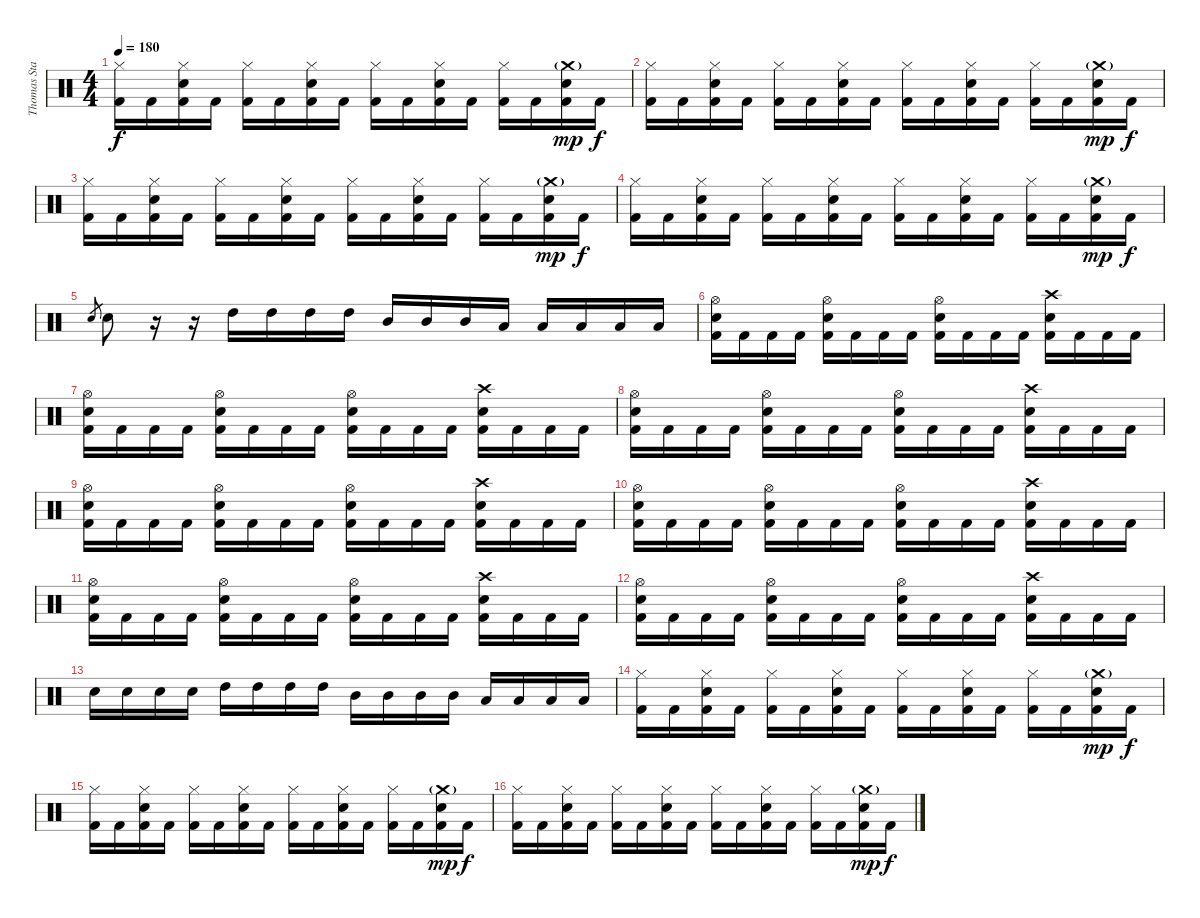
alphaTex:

\track ("Thomas Stauch" "Thomas Sta") {instrument percussion}
\staff {score}
\articulation defaults
\ts (4 4)
\tempo 180
\clef neutral
\ks c
("Hi-Hat (closed)" "Kick (hit) 2").16{dy f} "Kick (hit) 2".16 ("Hi-Hat (closed)" "Electric Snare (hit)" "Kick (hit) 2").16 "Kick (hit) 2".16 ("Hi-Hat (closed)" "Kick (hit) 2").16 "Kick (hit) 2".16 ("Hi-Hat (closed)" "Electric Snare (hit)" "Kick (hit) 2").16 "Kick (hit) 2".16 ("Hi-Hat (closed)" "Kick (hit) 2").16 "Kick (hit) 2".16 ("Hi-Hat (closed)" "Electric Snare (hit)" "Kick (hit) 2").16 "Kick (hit) 2".16 ("Hi-Hat (closed)" "Kick (hit) 2").16 "Kick (hit) 2".16 ("Crash medium (hit)"{g} "Electric Snare (hit)" "Kick (hit) 2").16{dy mp} "Kick (hit) 2".16{dy f} |
("Hi-Hat (closed)" "Kick (hit) 2").16 "Kick (hit) 2".16 ("Hi-Hat (closed)" "Electric Snare (hit)" "Kick (hit) 2").16 "Kick (hit) 2".16 ("Hi-Hat (closed)" "Kick (hit) 2").16 "Kick (hit) 2".16 ("Hi-Hat (closed)" "Electric Snare (hit)" "Kick (hit) 2").16 "Kick (hit) 2".16 ("Hi-Hat (closed)" "Kick (hit) 2").16 "Kick (hit) 2".16 ("Hi-Hat (closed)" "Electric Snare (hit)" "Kick (hit) 2").16 "Kick (hit) 2".16 ("Hi-Hat (closed)" "Kick (hit) 2").16 "Kick (hit) 2".16 ("Crash medium (hit)"{g} "Electric Snare (hit)" "Kick (hit) 2").16{dy mp} "Kick (hit) 2".16{dy f} |
("Hi-Hat (closed)" "Kick (hit) 2").16 "Kick (hit) 2".16 ("Hi-Hat (closed)" "Electric Snare (hit)" "Kick (hit) 2").16 "Kick (hit) 2".16 ("Hi-Hat (closed)" "Kick (hit) 2").16 "Kick (hit) 2".16 ("Hi-Hat (closed)" "Electric Snare (hit)" "Kick (hit) 2").16 "Kick (hit) 2".16 ("Hi-Hat (closed)" "Kick (hit) 2").16 "Kick (hit) 2".16 ("Hi-Hat (closed)" "Electric Snare (hit)" "Kick (hit) 2").16 "Kick (hit) 2".16 ("Hi-Hat (closed)" "Kick (hit) 2").16 "Kick (hit) 2".16 ("Crash medium (hit)"{g} "Electric Snare (hit)" "Kick (hit) 2").16{dy mp} "Kick (hit) 2".16{dy f} |
("Hi-Hat (closed)" "Kick (hit) 2").16 "Kick (hit) 2".16 ("Hi-Hat (closed)" "Electric Snare (hit)" "Kick (hit) 2").16 "Kick (hit) 2".16 ("Hi-Hat (closed)" "Kick (hit) 2").16 "Kick (hit) 2".16 ("Hi-Hat (closed)" "Electric Snare (hit)" "Kick (hit) 2").16 "Kick (hit) 2".16 ("Hi-Hat (closed)" "Kick (hit) 2").16 "Kick (hit) 2".16 ("Hi-Hat (closed)" "Electric Snare (hit)" "Kick (hit) 2").16 "Kick (hit) 2".16 ("Hi-Hat (closed)" "Kick (hit) 2").16 "Kick (hit) 2".16 ("Crash medium (hit)"{g} "Electric Snare (hit)" "Kick (hit) 2").16{dy mp} "Kick (hit) 2".16{dy f} |
"Electric Snare (hit)".8{gr} "Electric Snare (hit)".8 r.16 r.16 "High Tom (hit)".16 "High Tom (hit)".16 "High Tom (hit)".16 "High Tom (hit)".16 "Mid Tom (hit)".16 "Mid Tom (hit)".16 "Mid Tom (hit)".16 "Low Tom (hit)".16 "Low Tom (hit)".16 "Low Tom (hit)".16 "Low Tom (hit)".16 "Low Tom (hit)".16 |
("Hi-Hat (open)" "Electric Snare (hit)" "Kick (hit) 2").16 "Kick (hit) 2".16 "Kick (hit) 2".16 "Kick (hit) 2".16 ("Hi-Hat (open)" "Electric Snare (hit)" "Kick (hit) 2").16 "Kick (hit) 2".16 "Kick (hit) 2".16 "Kick (hit) 2".16 ("Hi-Hat (open)" "Electric Snare (hit)" "Kick (hit) 2").16 "Kick (hit) 2".16 "Kick (hit) 2".16 "Kick (hit) 2".16 ("Crash high (hit)" "Electric Snare (hit)" "Kick (hit) 2").16 "Kick (hit) 2".16 "Kick (hit) 2".16 "Kick (hit) 2".16 |
("Hi-Hat (open)" "Electric Snare (hit)" "Kick (hit) 2").16 "Kick (hit) 2".16 "Kick (hit) 2".16 "Kick (hit) 2".16 ("Hi-Hat (open)" "Electric Snare (hit)" "Kick (hit) 2").16 "Kick (hit) 2".16 "Kick (hit) 2".16 "Kick (hit) 2".16 ("Hi-Hat (open)" "Electric Snare (hit)" "Kick (hit) 2").16 "Kick (hit) 2".16 "Kick (hit) 2".16 "Kick (hit) 2".16 ("Crash high (hit)" "Electric Snare (hit)" "Kick (hit) 2").16 "Kick (hit) 2".16 "Kick (hit) 2".16 "Kick (hit) 2".16 |
("Hi-Hat (open)" "Electric Snare (hit)" "Kick (hit) 2").16 "Kick (hit) 2".16 "Kick (hit) 2".16 "Kick (hit) 2".16 ("Hi-Hat (open)" "Electric Snare (hit)" "Kick (hit) 2").16 "Kick (hit) 2".16 "Kick (hit) 2".16 "Kick (hit) 2".16 ("Hi-Hat (open)" "Electric Snare (hit)" "Kick (hit) 2").16 "Kick (hit) 2".16 "Kick (hit) 2".16 "Kick (hit) 2".16 ("Crash high (hit)" "Electric Snare (hit)" "Kick (hit) 2").16 "Kick (hit) 2".16 "Kick (hit) 2".16 "Kick (hit) 2".16 |
("Hi-Hat (open)" "Electric Snare (hit)" "Kick (hit) 2").16 "Kick (hit) 2".16 "Kick (hit) 2".16 "Kick (hit) 2".16 ("Hi-Hat (open)" "Electric Snare (hit)" "Kick (hit) 2").16 "Kick (hit) 2".16 "Kick (hit) 2".16 "Kick (hit) 2".16 ("Hi-Hat (open)" "Electric Snare (hit)" "Kick (hit) 2").16 "Kick (hit) 2".16 "Kick (hit) 2".16 "Kick (hit) 2".16 ("Crash high (hit)" "Electric Snare (hit)" "Kick (hit) 2").16 "Kick (hit) 2".16 "Kick (hit) 2".16 "Kick (hit) 2".16 |
("Hi-Hat (open)" "Electric Snare (hit)" "Kick (hit) 2").16 "Kick (hit) 2".16 "Kick (hit) 2".16 "Kick (hit) 2".16 ("Hi-Hat (open)" "Electric Snare (hit)" "Kick (hit) 2").16 "Kick (hit) 2".16 "Kick (hit) 2".16 "Kick (hit) 2".16 ("Hi-Hat (open)" "Electric Snare (hit)" "Kick (hit) 2").16 "Kick (hit) 2".16 "Kick (hit) 2".16 "Kick (hit) 2".16 ("Crash high (hit)" "Electric Snare (hit)" "Kick (hit) 2").16 "Kick (hit) 2".16 "Kick (hit) 2".16 "Kick (hit) 2".16 |
("Hi-Hat (open)" "Electric Snare (hit)" "Kick (hit) 2").16 "Kick (hit) 2".16 "Kick (hit) 2".16 "Kick (hit) 2".16 ("Hi-Hat (open)" "Electric Snare (hit)" "Kick (hit) 2").16 "Kick (hit) 2".16 "Kick (hit) 2".16 "Kick (hit) 2".16 ("Hi-Hat (open)" "Electric Snare (hit)" "Kick (hit) 2").16 "Kick (hit) 2".16 "Kick (hit) 2".16 "Kick (hit) 2".16 ("Crash high (hit)" "Electric Snare (hit)" "Kick (hit) 2").16 "Kick (hit) 2".16 "Kick (hit) 2".16 "Kick (hit) 2".16 |
("Hi-Hat (open)" "Electric Snare (hit)" "Kick (hit) 2").16 "Kick (hit) 2".16 "Kick (hit) 2".16 "Kick (hit) 2".16 ("Hi-Hat (open)" "Electric Snare (hit)" "Kick (hit) 2").16 "Kick (hit) 2".16 "Kick (hit) 2".16 "Kick (hit) 2".16 ("Hi-Hat (open)" "Electric Snare (hit)" "Kick (hit) 2").16 "Kick (hit) 2".16 "Kick (hit) 2".16 "Kick (hit) 2".16 ("Crash high (hit)" "Electric Snare (hit)" "Kick (hit) 2").16 "Kick (hit) 2".16 "Kick (hit) 2".16 "Kick (hit) 2".16 |
"Electric Snare (hit)".16 "Electric Snare (hit)".16 "Electric Snare (hit)".16 "Electric Snare (hit)".16 "High Tom (hit)".16 "High Tom (hit)".16 "High Tom (hit)".16 "High Tom (hit)".16 "Mid Tom (hit)".16 "Mid Tom (hit)".16 "Mid Tom (hit)".16 "Mid Tom (hit)".16 "Low Tom (hit)".16 "Low Tom (hit)".16 "Low Tom (hit)".16 "Low Tom (hit)".16 |
("Hi-Hat (closed)" "Kick (hit) 2").16 "Kick (hit) 2".16 ("Hi-Hat (closed)" "Electric Snare (hit)" "Kick (hit) 2").16 "Kick (hit) 2".16 ("Hi-Hat (closed)" "Kick (hit) 2").16 "Kick (hit) 2".16 ("Hi-Hat (closed)" "Electric Snare (hit)" "Kick (hit) 2").16 "Kick (hit) 2".16 ("Hi-Hat (closed)" "Kick (hit) 2").16 "Kick (hit) 2".16 ("Hi-Hat (closed)" "Electric Snare (hit)" "Kick (hit) 2").16 "Kick (hit) 2".16 ("Hi-Hat (closed)" "Kick (hit) 2").16 "Kick (hit) 2".16 ("Crash medium (hit)"{g} "Electric Snare (hit)" "Kick (hit) 2").16{dy mp} "Kick (hit) 2".16{dy f} |
("Hi-Hat (closed)" "Kick (hit) 2").16 "Kick (hit) 2".16 ("Hi-Hat (closed)" "Electric Snare (hit)" "Kick (hit) 2").16 "Kick (hit) 2".16 ("Hi-Hat (closed)" "Kick (hit) 2").16 "Kick (hit) 2".16 ("Hi-Hat (closed)" "Electric Snare (hit)" "Kick (hit) 2").16 "Kick (hit) 2".16 ("Hi-Hat (closed)" "Kick (hit) 2").16 "Kick (hit) 2".16 ("Hi-Hat (closed)" "Electric Snare (hit)" "Kick (hit) 2").16 "Kick (hit) 2".16 ("Hi-Hat (closed)" "Kick (hit) 2").16 "Kick (hit) 2".16 ("Crash medium (hit)"{g} "Electric Snare (hit)" "Kick (hit) 2").16{dy mp} "Kick (hit) 2".16{dy f} |
("Hi-Hat (closed)" "Kick (hit) 2").16 "Kick (hit) 2".16 ("Hi-Hat (closed)" "Electric Snare (hit)" "Kick (hit) 2").16 "Kick (hit) 2".16 ("Hi-Hat (closed)" "Kick (hit) 2").16 "Kick (hit) 2".16 ("Hi-Hat (closed)" "Electric Snare (hit)" "Kick (hit) 2").16 "Kick (hit) 2".16 ("Hi-Hat (closed)" "Kick (hit) 2").16 "Kick (hit) 2".16 ("Hi-Hat (closed)" "Electric Snare (hit)" "Kick (hit) 2").16 "Kick (hit) 2".16 ("Hi-Hat (closed)" "Kick (hit) 2").16 "Kick (hit) 2".16 ("Crash medium (hit)"{g} "Electric Snare (hit)" "Kick (hit) 2").16{dy mp} "Kick (hit) 2".16{dy f}
